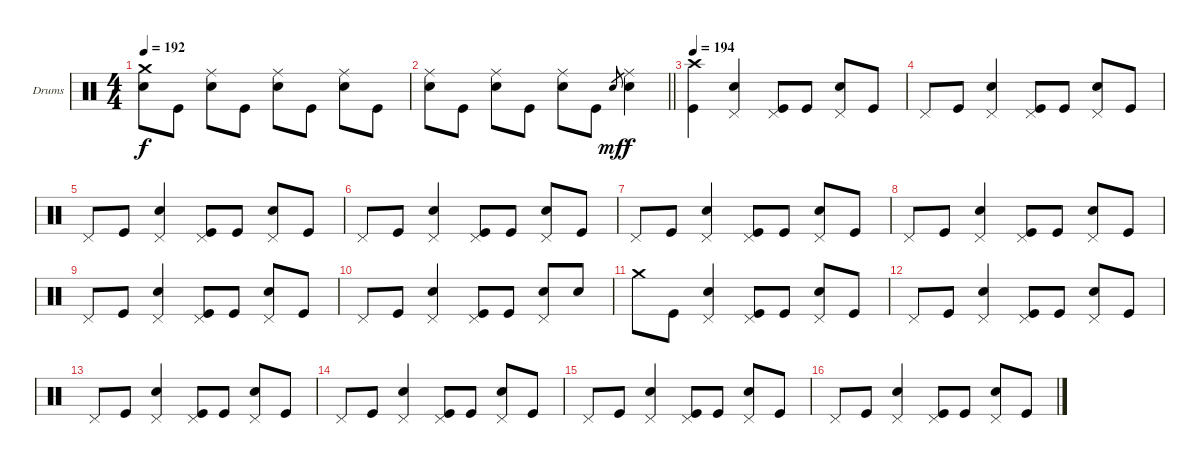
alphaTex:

\bracketExtendMode groupsimilarinstruments
\firstSystemTrackNameOrientation horizontal
\otherSystemsTrackNameOrientation horizontal
\track ("Максим Удалов" "Drums") {instrument percussion}
\staff {score}
\articulation defaults
\ts (4 4)
\tempo 192
\clef neutral
\ks c
("Snare (hit) 2" "Crash medium (hit)").8{dy f} "Kick (hit)".8 ("Snare (hit) 2" "Ride (middle)").8 "Kick (hit)".8 ("Snare (hit) 2" "Ride (middle)").8 "Kick (hit)".8 ("Snare (hit) 2" "Ride (middle)").8 "Kick (hit)".8 |
\barLineRight lightlight
("Snare (hit) 2" "Ride (middle)").8 "Kick (hit)".8 ("Snare (hit) 2" "Ride (middle)").8 "Kick (hit)".8 ("Snare (hit) 2" "Ride (middle)").8 "Kick (hit)".8 "Snare (hit) 2".8{gr dy mf} ("Snare (hit) 2" "Ride (middle)").4{dy f} |
\tempo 194
("Kick (hit)" "Crash high (hit)").4 ("Snare (hit) 2" "Pedal Hi-Hat (hit)").4 ("Kick (hit)" "Pedal Hi-Hat (hit)").8 "Kick (hit)".8 ("Snare (hit) 2" "Pedal Hi-Hat (hit)").8 "Kick (hit)".8 |
"Pedal Hi-Hat (hit)".8 "Kick (hit)".8 ("Snare (hit) 2" "Pedal Hi-Hat (hit)").4 ("Kick (hit)" "Pedal Hi-Hat (hit)").8 "Kick (hit)".8 ("Snare (hit) 2" "Pedal Hi-Hat (hit)").8 "Kick (hit)".8 |
"Pedal Hi-Hat (hit)".8 "Kick (hit)".8 ("Snare (hit) 2" "Pedal Hi-Hat (hit)").4 ("Kick (hit)" "Pedal Hi-Hat (hit)").8 "Kick (hit)".8 ("Snare (hit) 2" "Pedal Hi-Hat (hit)").8 "Kick (hit)".8 |
"Pedal Hi-Hat (hit)".8 "Kick (hit)".8 ("Snare (hit) 2" "Pedal Hi-Hat (hit)").4 ("Kick (hit)" "Pedal Hi-Hat (hit)").8 "Kick (hit)".8 ("Snare (hit) 2" "Pedal Hi-Hat (hit)").8 "Kick (hit)".8 |
"Pedal Hi-Hat (hit)".8 "Kick (hit)".8 ("Snare (hit) 2" "Pedal Hi-Hat (hit)").4 ("Kick (hit)" "Pedal Hi-Hat (hit)").8 "Kick (hit)".8 ("Snare (hit) 2" "Pedal Hi-Hat (hit)").8 "Kick (hit)".8 |
"Pedal Hi-Hat (hit)".8 "Kick (hit)".8 ("Snare (hit) 2" "Pedal Hi-Hat (hit)").4 ("Kick (hit)" "Pedal Hi-Hat (hit)").8 "Kick (hit)".8 ("Snare (hit) 2" "Pedal Hi-Hat (hit)").8 "Kick (hit)".8 |
"Pedal Hi-Hat (hit)".8 "Kick (hit)".8 ("Snare (hit) 2" "Pedal Hi-Hat (hit)").4 ("Kick (hit)" "Pedal Hi-Hat (hit)").8 "Kick (hit)".8 ("Snare (hit) 2" "Pedal Hi-Hat (hit)").8 "Kick (hit)".8 |
"Pedal Hi-Hat (hit)".8 "Kick (hit)".8 ("Snare (hit) 2" "Pedal Hi-Hat (hit)").4 ("Kick (hit)" "Pedal Hi-Hat (hit)").8 "Kick (hit)".8 ("Snare (hit) 2" "Pedal Hi-Hat (hit)").8 "Snare (hit) 2".8 |
"Crash medium (hit)".8 "Kick (hit)".8 ("Snare (hit) 2" "Pedal Hi-Hat (hit)").4 ("Kick (hit)" "Pedal Hi-Hat (hit)").8 "Kick (hit)".8 ("Snare (hit) 2" "Pedal Hi-Hat (hit)").8 "Kick (hit)".8 |
"Pedal Hi-Hat (hit)".8 "Kick (hit)".8 ("Snare (hit) 2" "Pedal Hi-Hat (hit)").4 ("Kick (hit)" "Pedal Hi-Hat (hit)").8 "Kick (hit)".8 ("Snare (hit) 2" "Pedal Hi-Hat (hit)").8 "Kick (hit)".8 |
"Pedal Hi-Hat (hit)".8 "Kick (hit)".8 ("Snare (hit) 2" "Pedal Hi-Hat (hit)").4 ("Kick (hit)" "Pedal Hi-Hat (hit)").8 "Kick (hit)".8 ("Snare (hit) 2" "Pedal Hi-Hat (hit)").8 "Kick (hit)".8 |
"Pedal Hi-Hat (hit)".8 "Kick (hit)".8 ("Snare (hit) 2" "Pedal Hi-Hat (hit)").4 ("Kick (hit)" "Pedal Hi-Hat (hit)").8 "Kick (hit)".8 ("Snare (hit) 2" "Pedal Hi-Hat (hit)").8 "Kick (hit)".8 |
"Pedal Hi-Hat (hit)".8 "Kick (hit)".8 ("Snare (hit) 2" "Pedal Hi-Hat (hit)").4 ("Kick (hit)" "Pedal Hi-Hat (hit)").8 "Kick (hit)".8 ("Snare (hit) 2" "Pedal Hi-Hat (hit)").8 "Kick (hit)".8 |
"Pedal Hi-Hat (hit)".8 "Kick (hit)".8 ("Snare (hit) 2" "Pedal Hi-Hat (hit)").4 ("Kick (hit)" "Pedal Hi-Hat (hit)").8 "Kick (hit)".8 ("Snare (hit) 2" "Pedal Hi-Hat (hit)").8 "Kick (hit)".8
